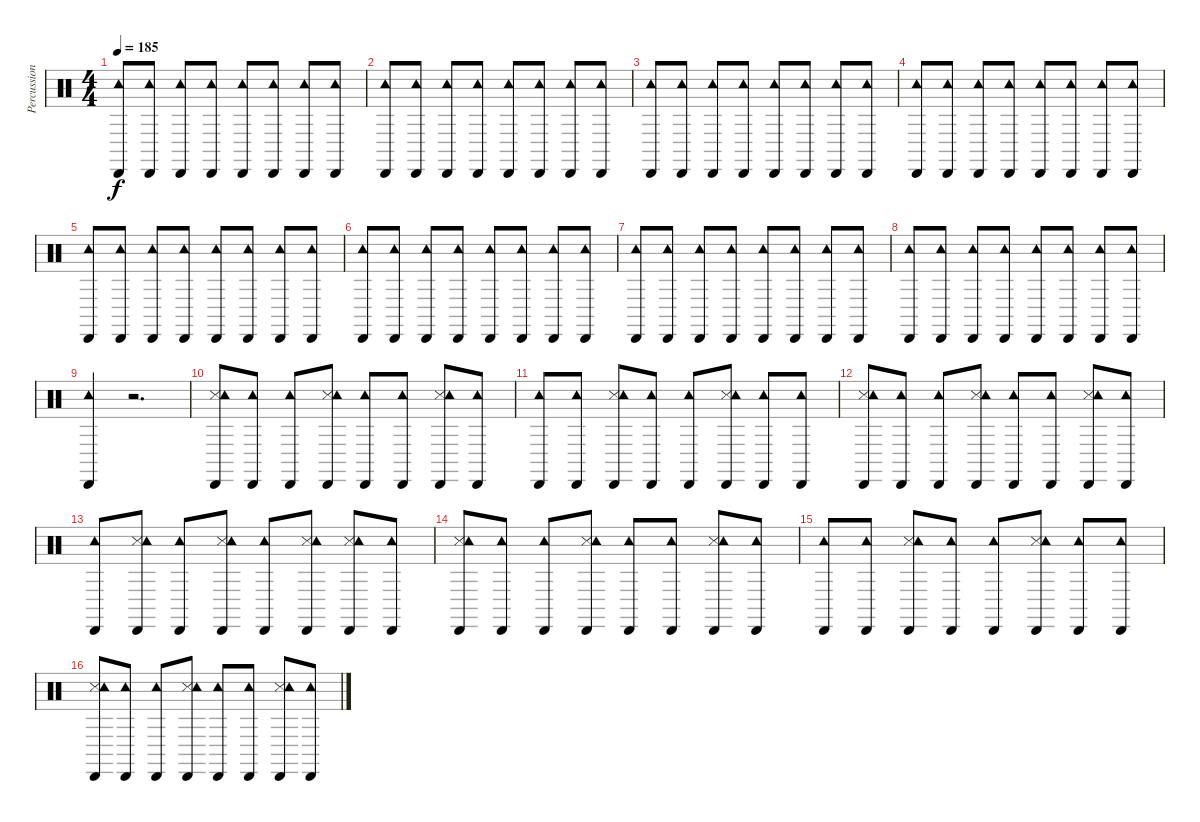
\track ("Percussion" "Percussion") {instrument percussion}
\staff {score}
\articulation defaults
\ts (4 4)
\tempo 185
\clef neutral
\ks c
("Cabasa (hit)" "Tambourine (hit)").8{dy f} ("Cabasa (hit)" "Tambourine (hit)").8 ("Cabasa (hit)" "Tambourine (hit)").8 ("Cabasa (hit)" "Tambourine (hit)").8 ("Cabasa (hit)" "Tambourine (hit)").8 ("Cabasa (hit)" "Tambourine (hit)").8 ("Cabasa (hit)" "Tambourine (hit)").8 ("Cabasa (hit)" "Tambourine (hit)").8 |
("Cabasa (hit)" "Tambourine (hit)").8 ("Cabasa (hit)" "Tambourine (hit)").8 ("Cabasa (hit)" "Tambourine (hit)").8 ("Cabasa (hit)" "Tambourine (hit)").8 ("Cabasa (hit)" "Tambourine (hit)").8 ("Cabasa (hit)" "Tambourine (hit)").8 ("Cabasa (hit)" "Tambourine (hit)").8 ("Cabasa (hit)" "Tambourine (hit)").8 |
("Cabasa (hit)" "Tambourine (hit)").8 ("Cabasa (hit)" "Tambourine (hit)").8 ("Cabasa (hit)" "Tambourine (hit)").8 ("Cabasa (hit)" "Tambourine (hit)").8 ("Cabasa (hit)" "Tambourine (hit)").8 ("Cabasa (hit)" "Tambourine (hit)").8 ("Cabasa (hit)" "Tambourine (hit)").8 ("Cabasa (hit)" "Tambourine (hit)").8 |
("Cabasa (hit)" "Tambourine (hit)").8 ("Cabasa (hit)" "Tambourine (hit)").8 ("Cabasa (hit)" "Tambourine (hit)").8 ("Cabasa (hit)" "Tambourine (hit)").8 ("Cabasa (hit)" "Tambourine (hit)").8 ("Cabasa (hit)" "Tambourine (hit)").8 ("Cabasa (hit)" "Tambourine (hit)").8 ("Cabasa (hit)" "Tambourine (hit)").8 |
("Cabasa (hit)" "Tambourine (hit)").8 ("Cabasa (hit)" "Tambourine (hit)").8 ("Cabasa (hit)" "Tambourine (hit)").8 ("Cabasa (hit)" "Tambourine (hit)").8 ("Cabasa (hit)" "Tambourine (hit)").8 ("Cabasa (hit)" "Tambourine (hit)").8 ("Cabasa (hit)" "Tambourine (hit)").8 ("Cabasa (hit)" "Tambourine (hit)").8 |
("Cabasa (hit)" "Tambourine (hit)").8 ("Cabasa (hit)" "Tambourine (hit)").8 ("Cabasa (hit)" "Tambourine (hit)").8 ("Cabasa (hit)" "Tambourine (hit)").8 ("Cabasa (hit)" "Tambourine (hit)").8 ("Cabasa (hit)" "Tambourine (hit)").8 ("Cabasa (hit)" "Tambourine (hit)").8 ("Cabasa (hit)" "Tambourine (hit)").8 |
("Cabasa (hit)" "Tambourine (hit)").8 ("Cabasa (hit)" "Tambourine (hit)").8 ("Cabasa (hit)" "Tambourine (hit)").8 ("Cabasa (hit)" "Tambourine (hit)").8 ("Cabasa (hit)" "Tambourine (hit)").8 ("Cabasa (hit)" "Tambourine (hit)").8 ("Cabasa (hit)" "Tambourine (hit)").8 ("Cabasa (hit)" "Tambourine (hit)").8 |
("Cabasa (hit)" "Tambourine (hit)").8 ("Cabasa (hit)" "Tambourine (hit)").8 ("Cabasa (hit)" "Tambourine (hit)").8 ("Cabasa (hit)" "Tambourine (hit)").8 ("Cabasa (hit)" "Tambourine (hit)").8 ("Cabasa (hit)" "Tambourine (hit)").8 ("Cabasa (hit)" "Tambourine (hit)").8 ("Cabasa (hit)" "Tambourine (hit)").8 |
("Cabasa (hit)" "Tambourine (hit)").4 r.2{d} |
("Snare (side stick) 3" "Cabasa (hit)" "Tambourine (hit)").8 ("Cabasa (hit)" "Tambourine (hit)").8 ("Cabasa (hit)" "Tambourine (hit)").8 ("Snare (side stick) 3" "Cabasa (hit)" "Tambourine (hit)").8 ("Cabasa (hit)" "Tambourine (hit)").8 ("Cabasa (hit)" "Tambourine (hit)").8 ("Snare (side stick) 3" "Cabasa (hit)" "Tambourine (hit)").8 ("Cabasa (hit)" "Tambourine (hit)").8 |
("Cabasa (hit)" "Tambourine (hit)").8 ("Cabasa (hit)" "Tambourine (hit)").8 ("Snare (side stick) 3" "Cabasa (hit)" "Tambourine (hit)").8 ("Cabasa (hit)" "Tambourine (hit)").8 ("Cabasa (hit)" "Tambourine (hit)").8 ("Snare (side stick) 3" "Cabasa (hit)" "Tambourine (hit)").8 ("Cabasa (hit)" "Tambourine (hit)").8 ("Cabasa (hit)" "Tambourine (hit)").8 |
("Snare (side stick) 3" "Cabasa (hit)" "Tambourine (hit)").8 ("Cabasa (hit)" "Tambourine (hit)").8 ("Cabasa (hit)" "Tambourine (hit)").8 ("Snare (side stick) 3" "Cabasa (hit)" "Tambourine (hit)").8 ("Cabasa (hit)" "Tambourine (hit)").8 ("Cabasa (hit)" "Tambourine (hit)").8 ("Snare (side stick) 3" "Cabasa (hit)" "Tambourine (hit)").8 ("Cabasa (hit)" "Tambourine (hit)").8 |
("Cabasa (hit)" "Tambourine (hit)").8 ("Snare (side stick) 3" "Cabasa (hit)" "Tambourine (hit)").8 ("Cabasa (hit)" "Tambourine (hit)").8 ("Snare (side stick) 3" "Cabasa (hit)" "Tambourine (hit)").8 ("Cabasa (hit)" "Tambourine (hit)").8 ("Snare (side stick) 3" "Cabasa (hit)" "Tambourine (hit)").8 ("Snare (side stick) 3" "Cabasa (hit)" "Tambourine (hit)").8 ("Cabasa (hit)" "Tambourine (hit)").8 |
("Snare (side stick) 3" "Cabasa (hit)" "Tambourine (hit)").8 ("Cabasa (hit)" "Tambourine (hit)").8 ("Cabasa (hit)" "Tambourine (hit)").8 ("Snare (side stick) 3" "Cabasa (hit)" "Tambourine (hit)").8 ("Cabasa (hit)" "Tambourine (hit)").8 ("Cabasa (hit)" "Tambourine (hit)").8 ("Snare (side stick) 3" "Cabasa (hit)" "Tambourine (hit)").8 ("Cabasa (hit)" "Tambourine (hit)").8 |
("Cabasa (hit)" "Tambourine (hit)").8 ("Cabasa (hit)" "Tambourine (hit)").8 ("Snare (side stick) 3" "Cabasa (hit)" "Tambourine (hit)").8 ("Cabasa (hit)" "Tambourine (hit)").8 ("Cabasa (hit)" "Tambourine (hit)").8 ("Snare (side stick) 3" "Cabasa (hit)" "Tambourine (hit)").8 ("Cabasa (hit)" "Tambourine (hit)").8 ("Cabasa (hit)" "Tambourine (hit)").8 |
("Snare (side stick) 3" "Cabasa (hit)" "Tambourine (hit)").8 ("Cabasa (hit)" "Tambourine (hit)").8 ("Cabasa (hit)" "Tambourine (hit)").8 ("Snare (side stick) 3" "Cabasa (hit)" "Tambourine (hit)").8 ("Cabasa (hit)" "Tambourine (hit)").8 ("Cabasa (hit)" "Tambourine (hit)").8 ("Snare (side stick) 3" "Cabasa (hit)" "Tambourine (hit)").8 ("Cabasa (hit)" "Tambourine (hit)").8
